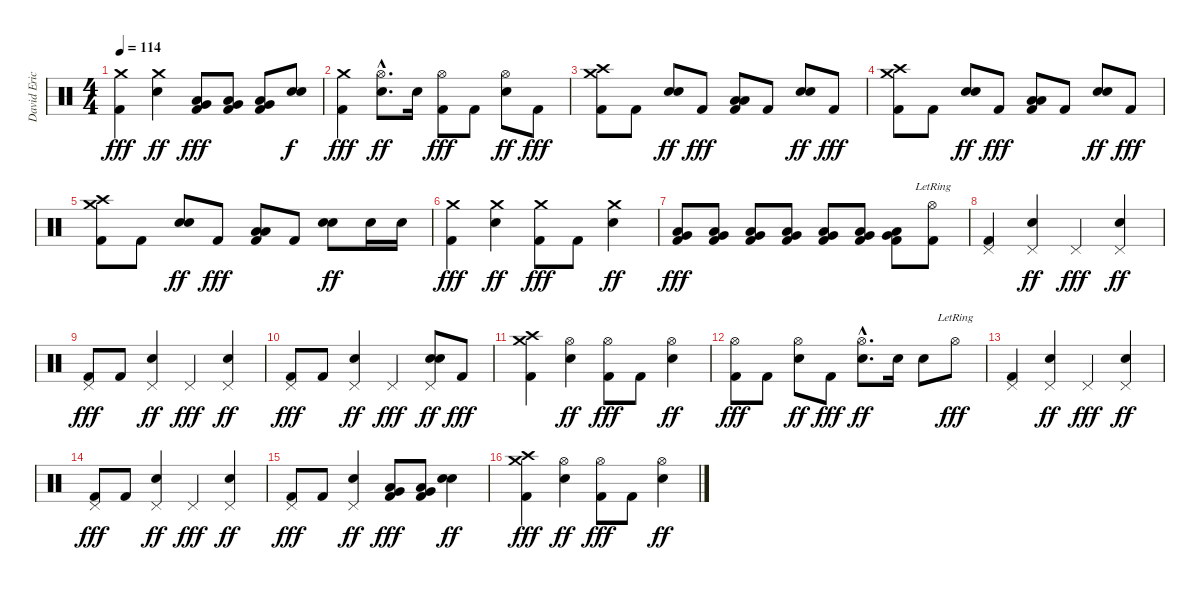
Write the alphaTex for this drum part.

\track ("David Eric Grohl" "David Eric") {instrument percussion}
\staff {score}
\articulation defaults
\ts (4 4)
\tempo 114
\clef neutral
\ks c
("Crash medium (hit)" "Kick (hit) 2").4{dy fff} ("Crash medium (hit)" "Electric Snare (hit)").4{dy ff} ("Low Tom (hit)" "Very Low Tom (hit)" "Kick (hit) 2").8{dy fff} ("Low Tom (hit)" "Very Low Tom (hit)" "Kick (hit) 2").8 ("Low Tom (hit)" "Very Low Tom (hit)" "Kick (hit) 2").8 ("Electric Snare (hit)" "Electric Snare (hit)").8{dy f} |
("Crash medium (hit)" "Kick (hit) 2").4{dy fff} ("Hi-Hat (open)"{hac} "Electric Snare (hit)"{hac}).8{d dy ff} "Electric Snare (hit)".16 ("Hi-Hat (open)" "Kick (hit) 2").8{dy fff} "Kick (hit) 2".8 ("Hi-Hat (open)" "Electric Snare (hit)").8{dy ff} "Kick (hit) 2".8{dy fff} |
("Crash high (hit)" "Crash medium (hit)" "Kick (hit) 2").8 "Kick (hit) 2".8 ("Electric Snare (hit)" "Electric Snare (hit)").8{dy ff} "Kick (hit) 2".8{dy fff} ("Low Tom (hit)" "Low Tom (hit)" "Kick (hit) 2").8 "Kick (hit) 2".8 ("Electric Snare (hit)" "Electric Snare (hit)").8{dy ff} "Kick (hit) 2".8{dy fff} |
("Crash high (hit)" "Crash medium (hit)" "Kick (hit) 2").8 "Kick (hit) 2".8 ("Electric Snare (hit)" "Electric Snare (hit)").8{dy ff} "Kick (hit) 2".8{dy fff} ("Low Tom (hit)" "Low Tom (hit)" "Kick (hit) 2").8 "Kick (hit) 2".8 ("Electric Snare (hit)" "Electric Snare (hit)").8{dy ff} "Kick (hit) 2".8{dy fff} |
("Crash high (hit)" "Crash medium (hit)" "Kick (hit) 2").8 "Kick (hit) 2".8 ("Electric Snare (hit)" "Electric Snare (hit)").8{dy ff} "Kick (hit) 2".8{dy fff} ("Low Tom (hit)" "Low Tom (hit)" "Kick (hit) 2").8 "Kick (hit) 2".8 ("Electric Snare (hit)" "Electric Snare (hit)").8{dy ff} "Electric Snare (hit)".16 "Electric Snare (hit)".16 |
("Crash medium (hit)" "Kick (hit) 2").4{dy fff} ("Crash medium (hit)" "Electric Snare (hit)").4{dy ff} ("Crash medium (hit)" "Kick (hit) 2").8{dy fff} "Kick (hit) 2".8 ("Crash medium (hit)" "Electric Snare (hit)").4{dy ff} |
("Low Tom (hit)" "Very Low Tom (hit)" "Kick (hit) 2").8{dy fff} ("Low Tom (hit)" "Very Low Tom (hit)" "Kick (hit) 2").8 ("Low Tom (hit)" "Very Low Tom (hit)" "Kick (hit) 2").8 ("Low Tom (hit)" "Very Low Tom (hit)" "Kick (hit) 2").8 ("Low Tom (hit)" "Very Low Tom (hit)" "Kick (hit) 2").8 ("Low Tom (hit)" "Very Low Tom (hit)" "Kick (hit) 2").8 ("Low Tom (hit)" "Very Low Tom (hit)" "Kick (hit) 2").8 ("Hi-Hat (open)"{lr} "Kick (hit) 2").8 |
("Pedal Hi-Hat (hit)" "Kick (hit) 2").4 ("Pedal Hi-Hat (hit)" "Electric Snare (hit)").4{dy ff} "Pedal Hi-Hat (hit)".4{dy fff} ("Pedal Hi-Hat (hit)" "Electric Snare (hit)").4{dy ff} |
("Pedal Hi-Hat (hit)" "Kick (hit) 2").8{dy fff} "Kick (hit) 2".8 ("Pedal Hi-Hat (hit)" "Electric Snare (hit)").4{dy ff} "Pedal Hi-Hat (hit)".4{dy fff} ("Pedal Hi-Hat (hit)" "Electric Snare (hit)").4{dy ff} |
("Pedal Hi-Hat (hit)" "Kick (hit) 2").8{dy fff} "Kick (hit) 2".8 ("Pedal Hi-Hat (hit)" "Electric Snare (hit)").4{dy ff} "Pedal Hi-Hat (hit)".4{dy fff} ("Pedal Hi-Hat (hit)" "Electric Snare (hit)" "Electric Snare (hit)").8{dy ff} "Kick (hit) 2".8{dy fff} |
("Crash medium (hit)" "Crash high (hit)" "Kick (hit) 2").4 ("Hi-Hat (open)" "Electric Snare (hit)").4{dy ff} ("Hi-Hat (open)" "Kick (hit) 2").8{dy fff} "Kick (hit) 2".8 ("Hi-Hat (open)" "Electric Snare (hit)").4{dy ff} |
("Hi-Hat (open)" "Kick (hit) 2").8{dy fff} "Kick (hit) 2".8 ("Hi-Hat (open)" "Electric Snare (hit)").8{dy ff} "Kick (hit) 2".8{dy fff} ("Hi-Hat (open)"{hac} "Electric Snare (hit)"{hac}).8{d dy ff} "Electric Snare (hit)".16 "Electric Snare (hit)".8 "Hi-Hat (open)"{lr}.8{dy fff} |
("Pedal Hi-Hat (hit)" "Kick (hit) 2").4 ("Pedal Hi-Hat (hit)" "Electric Snare (hit)").4{dy ff} "Pedal Hi-Hat (hit)".4{dy fff} ("Pedal Hi-Hat (hit)" "Electric Snare (hit)").4{dy ff} |
("Pedal Hi-Hat (hit)" "Kick (hit) 2").8{dy fff} "Kick (hit) 2".8 ("Pedal Hi-Hat (hit)" "Electric Snare (hit)").4{dy ff} "Pedal Hi-Hat (hit)".4{dy fff} ("Pedal Hi-Hat (hit)" "Electric Snare (hit)").4{dy ff} |
("Pedal Hi-Hat (hit)" "Kick (hit) 2").8{dy fff} "Kick (hit) 2".8 ("Pedal Hi-Hat (hit)" "Electric Snare (hit)").4{dy ff} ("Low Tom (hit)" "Very Low Tom (hit)" "Kick (hit) 2").8{dy fff} ("Low Tom (hit)" "Very Low Tom (hit)" "Kick (hit) 2").8 ("Electric Snare (hit)" "Electric Snare (hit)").4{dy ff} |
("Crash medium (hit)" "Crash high (hit)" "Kick (hit) 2").4{dy fff} ("Hi-Hat (open)" "Electric Snare (hit)").4{dy ff} ("Hi-Hat (open)" "Kick (hit) 2").8{dy fff} "Kick (hit) 2".8 ("Hi-Hat (open)" "Electric Snare (hit)").4{dy ff}
